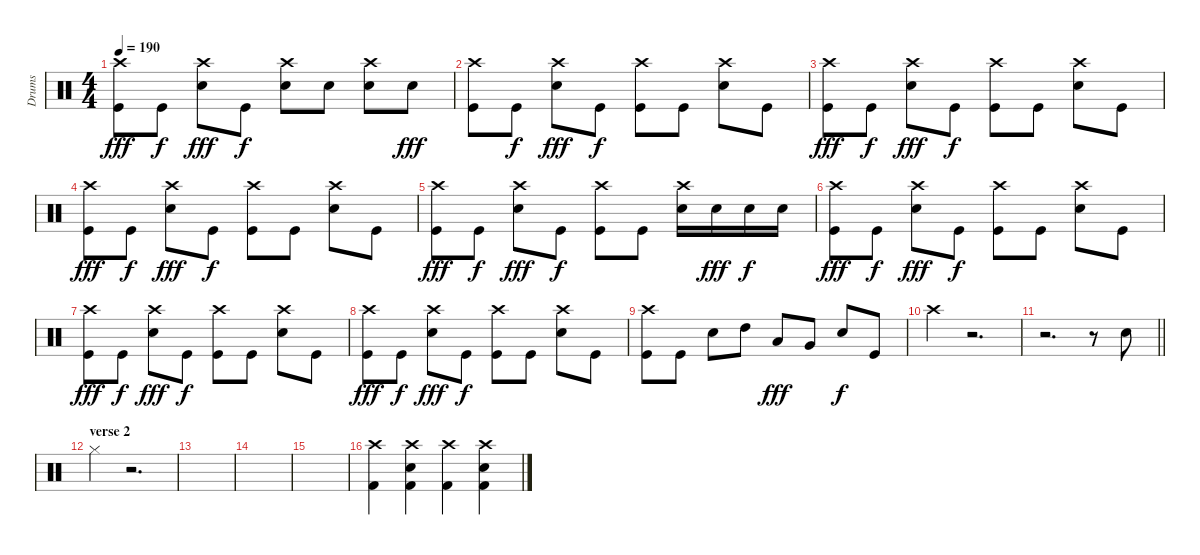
\track ("Drums" "Drums") {instrument percussion}
\staff {score}
\articulation defaults
\ts (4 4)
\tempo 190
\clef neutral
\ks c
("Crash high (hit)" "Kick (hit)").8{dy fff} "Kick (hit)".8{dy f} ("Crash high (hit)" "Snare (hit) 2").8{dy fff} "Kick (hit)".8{dy f} ("Crash high (hit)" "Snare (hit) 2").8 "Snare (hit) 2".8 ("Crash high (hit)" "Snare (hit) 2").8 "Snare (hit) 2".8{dy fff} |
("Crash high (hit)" "Kick (hit)").8 "Kick (hit)".8{dy f} ("Crash high (hit)" "Snare (hit) 2").8{dy fff} "Kick (hit)".8{dy f} ("Crash high (hit)" "Kick (hit)").8 "Kick (hit)".8 ("Crash high (hit)" "Snare (hit) 2").8 "Kick (hit)".8 |
("Crash high (hit)" "Kick (hit)").8{dy fff} "Kick (hit)".8{dy f} ("Crash high (hit)" "Snare (hit) 2").8{dy fff} "Kick (hit)".8{dy f} ("Crash high (hit)" "Kick (hit)").8 "Kick (hit)".8 ("Crash high (hit)" "Snare (hit) 2").8 "Kick (hit)".8 |
("Crash high (hit)" "Kick (hit)").8{dy fff} "Kick (hit)".8{dy f} ("Crash high (hit)" "Snare (hit) 2").8{dy fff} "Kick (hit)".8{dy f} ("Crash high (hit)" "Kick (hit)").8 "Kick (hit)".8 ("Crash high (hit)" "Snare (hit) 2").8 "Kick (hit)".8 |
("Crash high (hit)" "Kick (hit)").8{dy fff} "Kick (hit)".8{dy f} ("Crash high (hit)" "Snare (hit) 2").8{dy fff} "Kick (hit)".8{dy f} ("Crash high (hit)" "Kick (hit)").8 "Kick (hit)".8 ("Crash high (hit)" "Snare (hit) 2").16 "Snare (hit) 2".16{dy fff} "Snare (hit) 2".16{dy f} "Snare (hit) 2".16 |
("Crash high (hit)" "Kick (hit)").8{dy fff} "Kick (hit)".8{dy f} ("Crash high (hit)" "Snare (hit) 2").8{dy fff} "Kick (hit)".8{dy f} ("Crash high (hit)" "Kick (hit)").8 "Kick (hit)".8 ("Crash high (hit)" "Snare (hit) 2").8 "Kick (hit)".8 |
("Crash high (hit)" "Kick (hit)").8{dy fff} "Kick (hit)".8{dy f} ("Crash high (hit)" "Snare (hit) 2").8{dy fff} "Kick (hit)".8{dy f} ("Crash high (hit)" "Kick (hit)").8 "Kick (hit)".8 ("Crash high (hit)" "Snare (hit) 2").8 "Kick (hit)".8 |
("Crash high (hit)" "Kick (hit)").8{dy fff} "Kick (hit)".8{dy f} ("Crash high (hit)" "Snare (hit) 2").8{dy fff} "Kick (hit)".8{dy f} ("Crash high (hit)" "Kick (hit)").8 "Kick (hit)".8 ("Crash high (hit)" "Snare (hit) 2").8 "Kick (hit)".8 |
("Crash high (hit)" "Kick (hit)").8 "Kick (hit)".8 "Snare (hit) 2".8 "High Tom (hit)".8 "Low Tom (hit)".8{dy fff} "Very Low Tom (hit)".8 "Snare (hit) 2".8{dy f} "Kick (hit)".8 |
"Crash high (hit)".4 r.2{d} |
\barLineRight lightlight
r.2{d} r.8 "Snare (hit) 2".8 |
\section ("" "verse 2")
"Hi-Hat (closed)".4 r.2{d} |
|
|
|
("Crash high (hit)" "Kick (hit) 2").4 ("Crash high (hit)" "Snare (hit) 2" "Kick (hit) 2").4 ("Crash high (hit)" "Kick (hit) 2").4 ("Crash high (hit)" "Snare (hit) 2" "Kick (hit) 2").4
